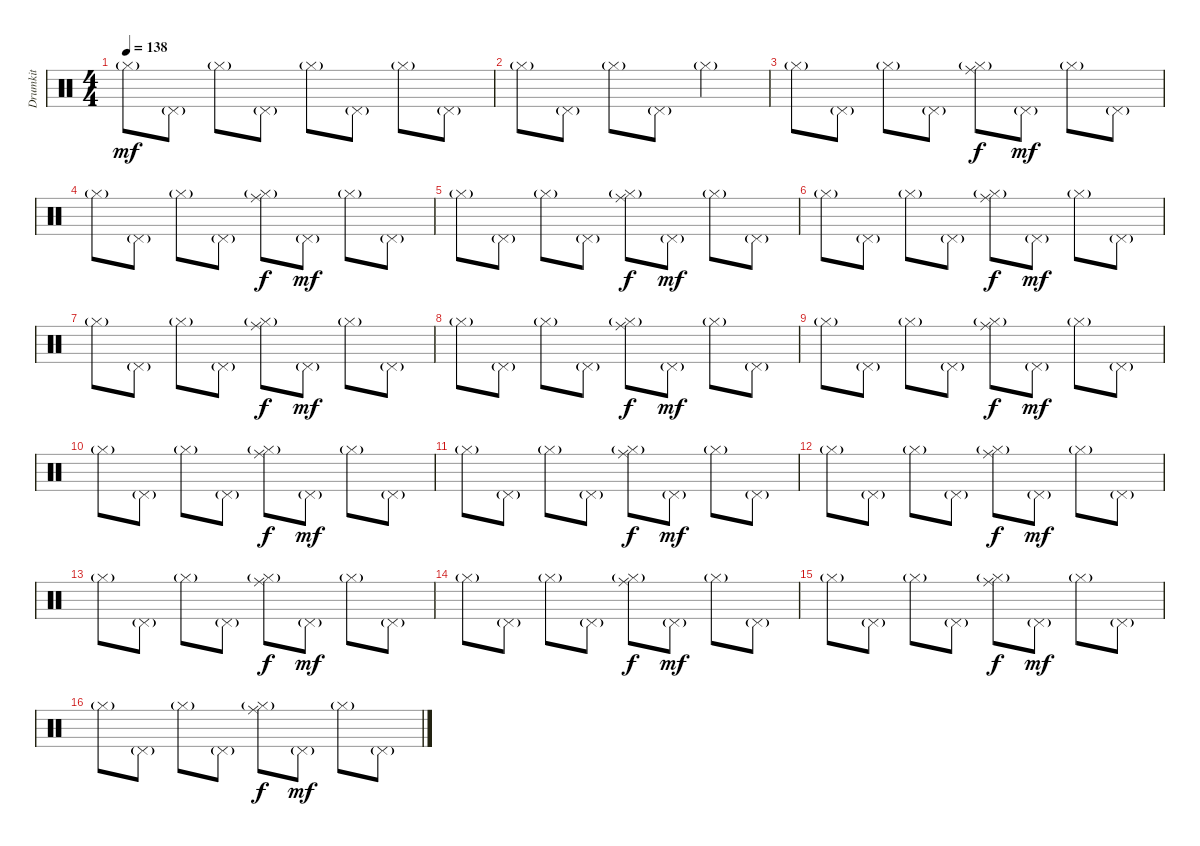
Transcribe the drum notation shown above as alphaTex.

\track ("Drumkit" "Drumkit") {instrument percussion}
\staff {score}
\articulation defaults
\ts (4 4)
\tempo 138
\clef neutral
\ks c "Hi-Hat (closed)"{g}.8{dy mf} "Pedal Hi-Hat (hit)"{g}.8 "Hi-Hat (closed)"{g}.8 "Pedal Hi-Hat (hit)"{g}.8 "Hi-Hat (closed)"{g}.8 "Pedal Hi-Hat (hit)"{g}.8 "Hi-Hat (closed)"{g}.8 "Pedal Hi-Hat (hit)"{g}.8
|
"Hi-Hat (closed)"{g}.8 "Pedal Hi-Hat (hit)"{g}.8 "Hi-Hat (closed)"{g}.8 "Pedal Hi-Hat (hit)"{g}.8 "Hi-Hat (closed)"{g}.2 |
"Hi-Hat (closed)"{g}.8 "Pedal Hi-Hat (hit)"{g}.8 "Hi-Hat (closed)"{g}.8 "Pedal Hi-Hat (hit)"{g}.8 ("Ride (middle)" "Hi-Hat (closed)"{g}).8{dy f} "Pedal Hi-Hat (hit)"{g}.8{dy mf} "Hi-Hat (closed)"{g}.8 "Pedal Hi-Hat (hit)"{g}.8 |
"Hi-Hat (closed)"{g}.8 "Pedal Hi-Hat (hit)"{g}.8 "Hi-Hat (closed)"{g}.8 "Pedal Hi-Hat (hit)"{g}.8 ("Ride (middle)" "Hi-Hat (closed)"{g}).8{dy f} "Pedal Hi-Hat (hit)"{g}.8{dy mf} "Hi-Hat (closed)"{g}.8 "Pedal Hi-Hat (hit)"{g}.8 |
"Hi-Hat (closed)"{g}.8 "Pedal Hi-Hat (hit)"{g}.8 "Hi-Hat (closed)"{g}.8 "Pedal Hi-Hat (hit)"{g}.8 ("Ride (middle)" "Hi-Hat (closed)"{g}).8{dy f} "Pedal Hi-Hat (hit)"{g}.8{dy mf} "Hi-Hat (closed)"{g}.8 "Pedal Hi-Hat (hit)"{g}.8 |
"Hi-Hat (closed)"{g}.8 "Pedal Hi-Hat (hit)"{g}.8 "Hi-Hat (closed)"{g}.8 "Pedal Hi-Hat (hit)"{g}.8 ("Ride (middle)" "Hi-Hat (closed)"{g}).8{dy f} "Pedal Hi-Hat (hit)"{g}.8{dy mf} "Hi-Hat (closed)"{g}.8 "Pedal Hi-Hat (hit)"{g}.8 |
"Hi-Hat (closed)"{g}.8 "Pedal Hi-Hat (hit)"{g}.8 "Hi-Hat (closed)"{g}.8 "Pedal Hi-Hat (hit)"{g}.8 ("Ride (middle)" "Hi-Hat (closed)"{g}).8{dy f} "Pedal Hi-Hat (hit)"{g}.8{dy mf} "Hi-Hat (closed)"{g}.8 "Pedal Hi-Hat (hit)"{g}.8 |
"Hi-Hat (closed)"{g}.8 "Pedal Hi-Hat (hit)"{g}.8 "Hi-Hat (closed)"{g}.8 "Pedal Hi-Hat (hit)"{g}.8 ("Ride (middle)" "Hi-Hat (closed)"{g}).8{dy f} "Pedal Hi-Hat (hit)"{g}.8{dy mf} "Hi-Hat (closed)"{g}.8 "Pedal Hi-Hat (hit)"{g}.8 |
"Hi-Hat (closed)"{g}.8 "Pedal Hi-Hat (hit)"{g}.8 "Hi-Hat (closed)"{g}.8 "Pedal Hi-Hat (hit)"{g}.8 ("Ride (middle)" "Hi-Hat (closed)"{g}).8{dy f} "Pedal Hi-Hat (hit)"{g}.8{dy mf} "Hi-Hat (closed)"{g}.8 "Pedal Hi-Hat (hit)"{g}.8 |
"Hi-Hat (closed)"{g}.8 "Pedal Hi-Hat (hit)"{g}.8 "Hi-Hat (closed)"{g}.8 "Pedal Hi-Hat (hit)"{g}.8 ("Ride (middle)" "Hi-Hat (closed)"{g}).8{dy f} "Pedal Hi-Hat (hit)"{g}.8{dy mf} "Hi-Hat (closed)"{g}.8 "Pedal Hi-Hat (hit)"{g}.8 |
"Hi-Hat (closed)"{g}.8 "Pedal Hi-Hat (hit)"{g}.8 "Hi-Hat (closed)"{g}.8 "Pedal Hi-Hat (hit)"{g}.8 ("Ride (middle)" "Hi-Hat (closed)"{g}).8{dy f} "Pedal Hi-Hat (hit)"{g}.8{dy mf} "Hi-Hat (closed)"{g}.8 "Pedal Hi-Hat (hit)"{g}.8 |
"Hi-Hat (closed)"{g}.8 "Pedal Hi-Hat (hit)"{g}.8 "Hi-Hat (closed)"{g}.8 "Pedal Hi-Hat (hit)"{g}.8 ("Ride (middle)" "Hi-Hat (closed)"{g}).8{dy f} "Pedal Hi-Hat (hit)"{g}.8{dy mf} "Hi-Hat (closed)"{g}.8 "Pedal Hi-Hat (hit)"{g}.8 |
"Hi-Hat (closed)"{g}.8 "Pedal Hi-Hat (hit)"{g}.8 "Hi-Hat (closed)"{g}.8 "Pedal Hi-Hat (hit)"{g}.8 ("Ride (middle)" "Hi-Hat (closed)"{g}).8{dy f} "Pedal Hi-Hat (hit)"{g}.8{dy mf} "Hi-Hat (closed)"{g}.8 "Pedal Hi-Hat (hit)"{g}.8 |
"Hi-Hat (closed)"{g}.8 "Pedal Hi-Hat (hit)"{g}.8 "Hi-Hat (closed)"{g}.8 "Pedal Hi-Hat (hit)"{g}.8 ("Ride (middle)" "Hi-Hat (closed)"{g}).8{dy f} "Pedal Hi-Hat (hit)"{g}.8{dy mf} "Hi-Hat (closed)"{g}.8 "Pedal Hi-Hat (hit)"{g}.8 |
"Hi-Hat (closed)"{g}.8 "Pedal Hi-Hat (hit)"{g}.8 "Hi-Hat (closed)"{g}.8 "Pedal Hi-Hat (hit)"{g}.8 ("Ride (middle)" "Hi-Hat (closed)"{g}).8{dy f} "Pedal Hi-Hat (hit)"{g}.8{dy mf} "Hi-Hat (closed)"{g}.8 "Pedal Hi-Hat (hit)"{g}.8 |
"Hi-Hat (closed)"{g}.8 "Pedal Hi-Hat (hit)"{g}.8 "Hi-Hat (closed)"{g}.8 "Pedal Hi-Hat (hit)"{g}.8 ("Ride (middle)" "Hi-Hat (closed)"{g}).8{dy f} "Pedal Hi-Hat (hit)"{g}.8{dy mf} "Hi-Hat (closed)"{g}.8 "Pedal Hi-Hat (hit)"{g}.8
